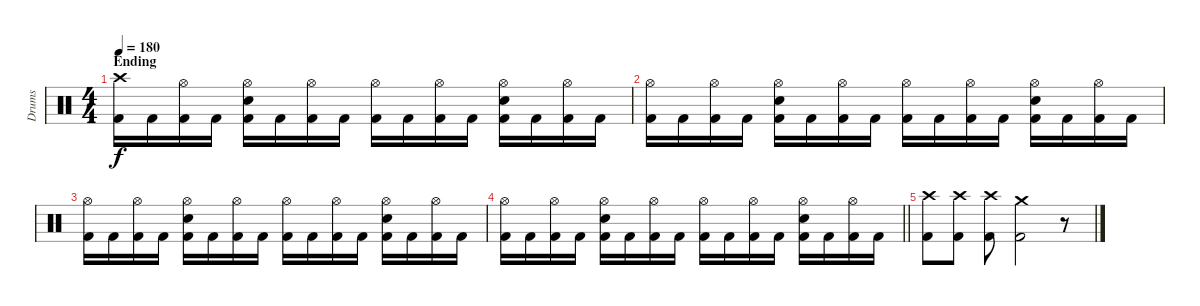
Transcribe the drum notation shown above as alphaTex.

\track ("Drums" "Drums") {instrument percussion}
\staff {score}
\articulation defaults
\ts (4 4)
\section ("" "Ending")
\tempo 180
\clef neutral
\ks c
("Crash high (hit)" "Kick (hit) 2").16{dy f} "Kick (hit) 2".16 ("Hi-Hat (open)" "Kick (hit) 2").16 "Kick (hit) 2".16 ("Hi-Hat (open)" "Electric Snare (hit)" "Kick (hit) 2").16 "Kick (hit) 2".16 ("Hi-Hat (open)" "Kick (hit) 2").16 "Kick (hit) 2".16 ("Hi-Hat (open)" "Kick (hit) 2").16 "Kick (hit) 2".16 ("Hi-Hat (open)" "Kick (hit) 2").16 "Kick (hit) 2".16 ("Hi-Hat (open)" "Electric Snare (hit)" "Kick (hit) 2").16 "Kick (hit) 2".16 ("Hi-Hat (open)" "Kick (hit) 2").16 "Kick (hit) 2".16 |
("Hi-Hat (open)" "Kick (hit) 2").16 "Kick (hit) 2".16 ("Hi-Hat (open)" "Kick (hit) 2").16 "Kick (hit) 2".16 ("Hi-Hat (open)" "Electric Snare (hit)" "Kick (hit) 2").16 "Kick (hit) 2".16 ("Hi-Hat (open)" "Kick (hit) 2").16 "Kick (hit) 2".16 ("Hi-Hat (open)" "Kick (hit) 2").16 "Kick (hit) 2".16 ("Hi-Hat (open)" "Kick (hit) 2").16 "Kick (hit) 2".16 ("Hi-Hat (open)" "Electric Snare (hit)" "Kick (hit) 2").16 "Kick (hit) 2".16 ("Hi-Hat (open)" "Kick (hit) 2").16 "Kick (hit) 2".16 |
("Hi-Hat (open)" "Kick (hit) 2").16 "Kick (hit) 2".16 ("Hi-Hat (open)" "Kick (hit) 2").16 "Kick (hit) 2".16 ("Hi-Hat (open)" "Electric Snare (hit)" "Kick (hit) 2").16 "Kick (hit) 2".16 ("Hi-Hat (open)" "Kick (hit) 2").16 "Kick (hit) 2".16 ("Hi-Hat (open)" "Kick (hit) 2").16 "Kick (hit) 2".16 ("Hi-Hat (open)" "Kick (hit) 2").16 "Kick (hit) 2".16 ("Hi-Hat (open)" "Electric Snare (hit)" "Kick (hit) 2").16 "Kick (hit) 2".16 ("Hi-Hat (open)" "Kick (hit) 2").16 "Kick (hit) 2".16 |
\barLineRight lightlight
("Hi-Hat (open)" "Kick (hit) 2").16 "Kick (hit) 2".16 ("Hi-Hat (open)" "Kick (hit) 2").16 "Kick (hit) 2".16 ("Hi-Hat (open)" "Electric Snare (hit)" "Kick (hit) 2").16 "Kick (hit) 2".16 ("Hi-Hat (open)" "Kick (hit) 2").16 "Kick (hit) 2".16 ("Hi-Hat (open)" "Kick (hit) 2").16 "Kick (hit) 2".16 ("Hi-Hat (open)" "Kick (hit) 2").16 "Kick (hit) 2".16 ("Hi-Hat (open)" "Electric Snare (hit)" "Kick (hit) 2").16 "Kick (hit) 2".16 ("Hi-Hat (open)" "Kick (hit) 2").16 "Kick (hit) 2".16 |
("Crash high (hit)" "Kick (hit) 2").8 ("Crash high (hit)" "Kick (hit) 2").8 ("Crash high (hit)" "Kick (hit) 2").8 ("Crash medium (hit)" "Kick (hit) 2").2 r.8
